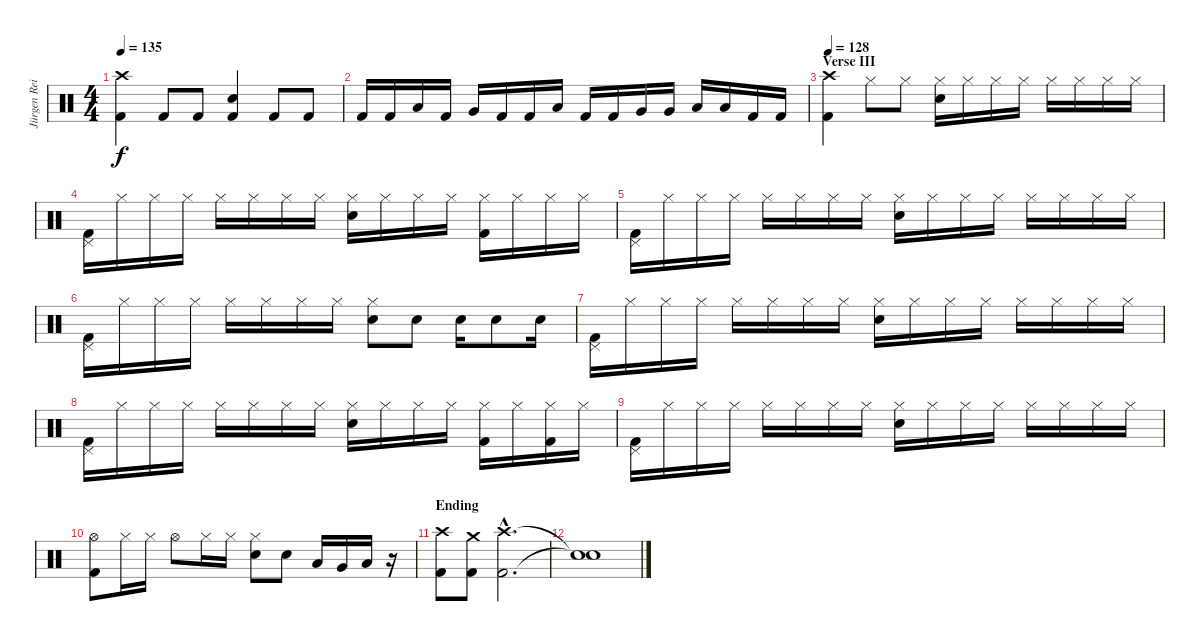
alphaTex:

\track ("Jürgen Reil [drums]" "Jürgen Rei") {instrument percussion}
\staff {score}
\articulation defaults
\ts (4 4)
\tempo 135
\clef neutral
\ks c
("Crash high (hit)" "Kick (hit) 2").4{dy f} "Kick (hit) 2".8 "Kick (hit) 2".8 ("Electric Snare (hit)" "Kick (hit) 2").4 "Kick (hit) 2".8 "Kick (hit) 2".8 |
"Kick (hit) 2".16 "Kick (hit) 2".16 "Low Floor Tom (hit)".16 "Kick (hit) 2".16 "Very Low Tom (hit)".16 "Kick (hit) 2".16 "Kick (hit) 2".16 "Low Floor Tom (hit)".16 "Kick (hit) 2".16 "Kick (hit) 2".16 "Very Low Tom (hit)".16 "Very Low Tom (hit)".16 "Low Floor Tom (hit)".16 "Low Floor Tom (hit)".16 "Kick (hit) 2".16 "Kick (hit) 2".16 |
\section ("" "Verse III")
\tempo 128
("Crash high (hit)" "Kick (hit) 2").4 "Hi-Hat (closed)".8 "Hi-Hat (closed)".8 ("Hi-Hat (closed)" "Electric Snare (hit)").16 "Hi-Hat (closed)".16 "Hi-Hat (closed)".16 "Hi-Hat (closed)".16 "Hi-Hat (closed)".16 "Hi-Hat (closed)".16 "Hi-Hat (closed)".16 "Hi-Hat (closed)".16 |
("Pedal Hi-Hat (hit)" "Kick (hit) 2").16 "Hi-Hat (closed)".16 "Hi-Hat (closed)".16 "Hi-Hat (closed)".16 "Hi-Hat (closed)".16 "Hi-Hat (closed)".16 "Hi-Hat (closed)".16 "Hi-Hat (closed)".16 ("Hi-Hat (closed)" "Electric Snare (hit)").16 "Hi-Hat (closed)".16 "Hi-Hat (closed)".16 "Hi-Hat (closed)".16 ("Hi-Hat (closed)" "Kick (hit) 2").16 "Hi-Hat (closed)".16 "Hi-Hat (closed)".16 "Hi-Hat (closed)".16 |
("Pedal Hi-Hat (hit)" "Kick (hit) 2").16 "Hi-Hat (closed)".16 "Hi-Hat (closed)".16 "Hi-Hat (closed)".16 "Hi-Hat (closed)".16 "Hi-Hat (closed)".16 "Hi-Hat (closed)".16 "Hi-Hat (closed)".16 ("Hi-Hat (closed)" "Electric Snare (hit)").16 "Hi-Hat (closed)".16 "Hi-Hat (closed)".16 "Hi-Hat (closed)".16 "Hi-Hat (closed)".16 "Hi-Hat (closed)".16 "Hi-Hat (closed)".16 "Hi-Hat (closed)".16 |
("Pedal Hi-Hat (hit)" "Kick (hit) 2").16 "Hi-Hat (closed)".16 "Hi-Hat (closed)".16 "Hi-Hat (closed)".16 "Hi-Hat (closed)".16 "Hi-Hat (closed)".16 "Hi-Hat (closed)".16 "Hi-Hat (closed)".16 ("Hi-Hat (closed)" "Electric Snare (hit)").8 "Electric Snare (hit)".8 "Electric Snare (hit)".16 "Electric Snare (hit)".8 "Electric Snare (hit)".16 |
("Pedal Hi-Hat (hit)" "Kick (hit) 2").16 "Hi-Hat (closed)".16 "Hi-Hat (closed)".16 "Hi-Hat (closed)".16 "Hi-Hat (closed)".16 "Hi-Hat (closed)".16 "Hi-Hat (closed)".16 "Hi-Hat (closed)".16 ("Hi-Hat (closed)" "Electric Snare (hit)").16 "Hi-Hat (closed)".16 "Hi-Hat (closed)".16 "Hi-Hat (closed)".16 "Hi-Hat (closed)".16 "Hi-Hat (closed)".16 "Hi-Hat (closed)".16 "Hi-Hat (closed)".16 |
("Pedal Hi-Hat (hit)" "Kick (hit) 2").16 "Hi-Hat (closed)".16 "Hi-Hat (closed)".16 "Hi-Hat (closed)".16 "Hi-Hat (closed)".16 "Hi-Hat (closed)".16 "Hi-Hat (closed)".16 "Hi-Hat (closed)".16 ("Hi-Hat (closed)" "Electric Snare (hit)").16 "Hi-Hat (closed)".16 "Hi-Hat (closed)".16 "Hi-Hat (closed)".16 ("Hi-Hat (closed)" "Kick (hit) 2").16 "Hi-Hat (closed)".16 ("Hi-Hat (closed)" "Kick (hit) 2").16 "Hi-Hat (closed)".16 |
("Pedal Hi-Hat (hit)" "Kick (hit) 2").16 "Hi-Hat (closed)".16 "Hi-Hat (closed)".16 "Hi-Hat (closed)".16 "Hi-Hat (closed)".16 "Hi-Hat (closed)".16 "Hi-Hat (closed)".16 "Hi-Hat (closed)".16 ("Hi-Hat (closed)" "Electric Snare (hit)").16 "Hi-Hat (closed)".16 "Hi-Hat (closed)".16 "Hi-Hat (closed)".16 "Hi-Hat (closed)".16 "Hi-Hat (closed)".16 "Hi-Hat (closed)".16 "Hi-Hat (closed)".16 |
("Hi-Hat (open)" "Kick (hit) 2").8 "Hi-Hat (closed)".16 "Hi-Hat (closed)".16 "Hi-Hat (open)".8 "Hi-Hat (closed)".16 "Hi-Hat (closed)".16 ("Hi-Hat (closed)" "Electric Snare (hit)").8 "Electric Snare (hit)".8 "Low Tom (hit)".16 "Very Low Tom (hit)".16 "Low Floor Tom (hit)".16 r.16 |
\section ("" "Ending")
("Crash high (hit)" "Kick (hit) 2").8 ("Crash medium (hit)" "Kick (hit) 2").8 ("Crash high (hit)"{hac} "Kick (hit) 2"{hac}).2{d} |
("Snare (hit)"{t} "Snare (hit)"{t}).1
